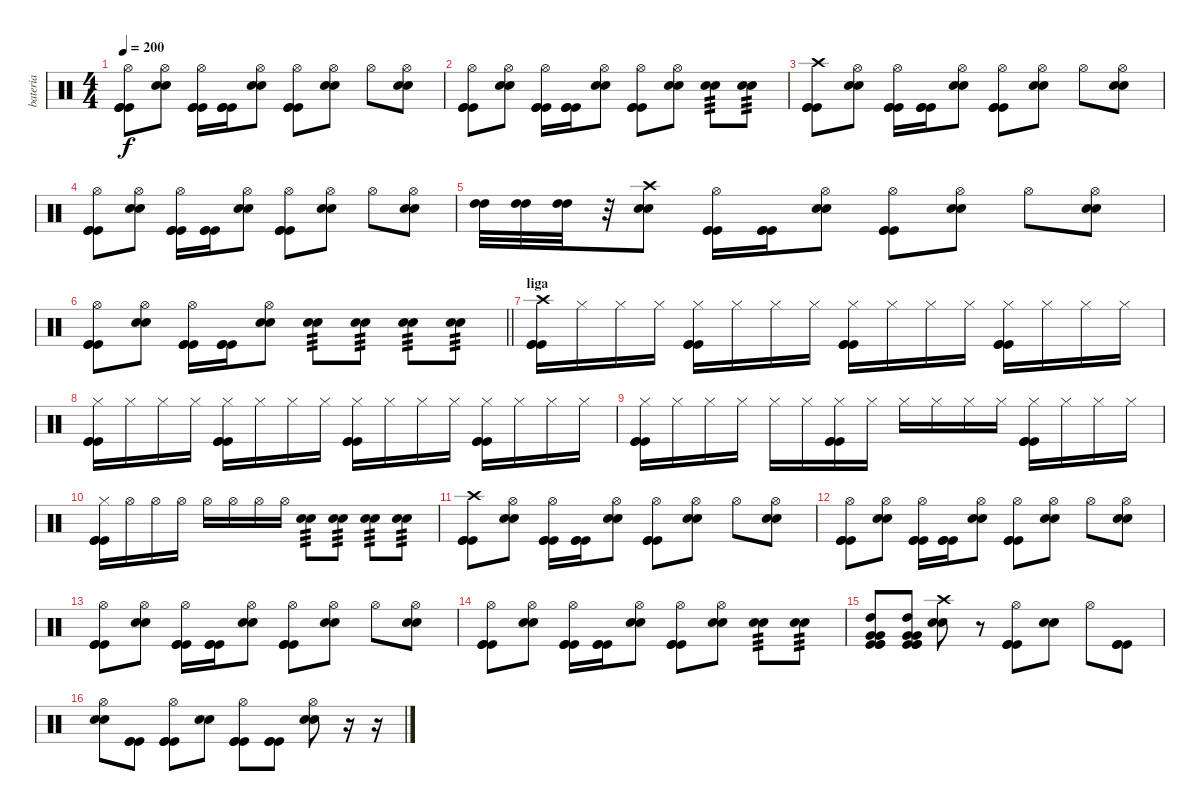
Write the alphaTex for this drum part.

\track ("bateria" "bateria") {instrument percussion}
\staff {score}
\articulation defaults
\ts (4 4)
\tempo 200
\clef neutral
\ks c
("Hi-Hat (open)" "Kick (hit)" "Kick (hit)" "Kick (hit)").8{dy f} ("Electric Snare (hit)" "Hi-Hat (open)" "Electric Snare (hit)").8 ("Hi-Hat (open)" "Kick (hit)" "Kick (hit)" "Kick (hit)").16 ("Kick (hit)" "Kick (hit)" "Kick (hit)").16 ("Electric Snare (hit)" "Hi-Hat (open)" "Electric Snare (hit)").8 ("Hi-Hat (open)" "Kick (hit)" "Kick (hit)" "Kick (hit)").8 ("Electric Snare (hit)" "Hi-Hat (open)" "Electric Snare (hit)").8 "Hi-Hat (open)".8 ("Electric Snare (hit)" "Hi-Hat (open)" "Electric Snare (hit)").8 |
("Hi-Hat (open)" "Kick (hit)" "Kick (hit)" "Kick (hit)").8 ("Electric Snare (hit)" "Hi-Hat (open)" "Electric Snare (hit)").8 ("Hi-Hat (open)" "Kick (hit)" "Kick (hit)" "Kick (hit)").16 ("Kick (hit)" "Kick (hit)" "Kick (hit)").16 ("Electric Snare (hit)" "Hi-Hat (open)" "Electric Snare (hit)").8 ("Hi-Hat (open)" "Kick (hit)" "Kick (hit)" "Kick (hit)").8 ("Electric Snare (hit)" "Hi-Hat (open)" "Electric Snare (hit)").8 ("Electric Snare (hit)" "Electric Snare (hit)").8{tp 3} ("Electric Snare (hit)" "Electric Snare (hit)").8{tp 3} |
("Crash high (hit)" "Kick (hit)" "Kick (hit)" "Kick (hit)").8 ("Electric Snare (hit)" "Hi-Hat (open)" "Electric Snare (hit)").8 ("Hi-Hat (open)" "Kick (hit)" "Kick (hit)" "Kick (hit)").16 ("Kick (hit)" "Kick (hit)" "Kick (hit)").16 ("Electric Snare (hit)" "Hi-Hat (open)" "Electric Snare (hit)").8 ("Hi-Hat (open)" "Kick (hit)" "Kick (hit)" "Kick (hit)").8 ("Electric Snare (hit)" "Hi-Hat (open)" "Electric Snare (hit)").8 "Hi-Hat (open)".8 ("Electric Snare (hit)" "Hi-Hat (open)" "Electric Snare (hit)").8 |
("Hi-Hat (open)" "Kick (hit)" "Kick (hit)" "Kick (hit)").8 ("Electric Snare (hit)" "Hi-Hat (open)" "Electric Snare (hit)").8 ("Hi-Hat (open)" "Kick (hit)" "Kick (hit)" "Kick (hit)").16 ("Kick (hit)" "Kick (hit)" "Kick (hit)").16 ("Electric Snare (hit)" "Hi-Hat (open)" "Electric Snare (hit)").8 ("Hi-Hat (open)" "Kick (hit)" "Kick (hit)" "Kick (hit)").8 ("Electric Snare (hit)" "Hi-Hat (open)" "Electric Snare (hit)").8 "Hi-Hat (open)".8 ("Electric Snare (hit)" "Hi-Hat (open)" "Electric Snare (hit)").8 |
("High Tom (hit)" "High Tom (hit)").32 ("High Tom (hit)" "High Tom (hit)").32 ("High Tom (hit)" "High Tom (hit)").32 r.32 ("Electric Snare (hit)" "Crash high (hit)" "Electric Snare (hit)").8 ("Hi-Hat (open)" "Kick (hit)" "Kick (hit)" "Kick (hit)").16 ("Kick (hit)" "Kick (hit)" "Kick (hit)").16 ("Electric Snare (hit)" "Hi-Hat (open)" "Electric Snare (hit)").8 ("Hi-Hat (open)" "Kick (hit)" "Kick (hit)" "Kick (hit)").8 ("Electric Snare (hit)" "Hi-Hat (open)" "Electric Snare (hit)").8 "Hi-Hat (open)".8 ("Electric Snare (hit)" "Hi-Hat (open)" "Electric Snare (hit)").8 |
\barLineRight lightlight
("Hi-Hat (open)" "Kick (hit)" "Kick (hit)" "Kick (hit)").8 ("Electric Snare (hit)" "Hi-Hat (open)" "Electric Snare (hit)").8 ("Hi-Hat (open)" "Kick (hit)" "Kick (hit)" "Kick (hit)").16 ("Kick (hit)" "Kick (hit)" "Kick (hit)").16 ("Electric Snare (hit)" "Hi-Hat (open)" "Electric Snare (hit)").8 ("Electric Snare (hit)" "Electric Snare (hit)").8{tp 3 volume 11} ("Electric Snare (hit)" "Electric Snare (hit)").8{tp 3} ("Electric Snare (hit)" "Electric Snare (hit)").8{tp 3 volume 11} ("Electric Snare (hit)" "Electric Snare (hit)").8{tp 3} |
\section ("" "liga")
("Crash high (hit)" "Kick (hit)" "Kick (hit)" "Kick (hit)").16 "Hi-Hat (closed)".16 "Hi-Hat (closed)".16 "Hi-Hat (closed)".16 ("Hi-Hat (closed)" "Kick (hit)" "Kick (hit)" "Kick (hit)").16 "Hi-Hat (closed)".16 "Hi-Hat (closed)".16 "Hi-Hat (closed)".16 ("Hi-Hat (closed)" "Kick (hit)" "Kick (hit)" "Kick (hit)").16 "Hi-Hat (closed)".16 "Hi-Hat (closed)".16 "Hi-Hat (closed)".16 ("Hi-Hat (closed)" "Kick (hit)" "Kick (hit)" "Kick (hit)").16 "Hi-Hat (closed)".16 "Hi-Hat (closed)".16 "Hi-Hat (closed)".16 |
("Hi-Hat (closed)" "Kick (hit)" "Kick (hit)" "Kick (hit)").16 "Hi-Hat (closed)".16 "Hi-Hat (closed)".16 "Hi-Hat (closed)".16 ("Hi-Hat (closed)" "Kick (hit)" "Kick (hit)" "Kick (hit)").16 "Hi-Hat (closed)".16 "Hi-Hat (closed)".16 "Hi-Hat (closed)".16 ("Hi-Hat (closed)" "Kick (hit)" "Kick (hit)" "Kick (hit)").16 "Hi-Hat (closed)".16 "Hi-Hat (closed)".16 "Hi-Hat (closed)".16 ("Hi-Hat (closed)" "Kick (hit)" "Kick (hit)" "Kick (hit)").16 "Hi-Hat (closed)".16 "Hi-Hat (closed)".16 "Hi-Hat (closed)".16 |
("Hi-Hat (closed)" "Kick (hit)" "Kick (hit)" "Kick (hit)").16 "Hi-Hat (closed)".16 "Hi-Hat (closed)".16 "Hi-Hat (closed)".16 "Hi-Hat (closed)".16 "Hi-Hat (closed)".16 ("Hi-Hat (closed)" "Kick (hit)" "Kick (hit)" "Kick (hit)").16 "Hi-Hat (closed)".16 "Hi-Hat (closed)".16 "Hi-Hat (closed)".16 "Hi-Hat (closed)".16 "Hi-Hat (closed)".16 ("Hi-Hat (closed)" "Kick (hit)" "Kick (hit)" "Kick (hit)").16 "Hi-Hat (closed)".16 "Hi-Hat (closed)".16 "Hi-Hat (closed)".16 |
("Hi-Hat (closed)" "Kick (hit)" "Kick (hit)" "Kick (hit)").16 "Hi-Hat (open)".16 "Hi-Hat (open)".16 "Hi-Hat (open)".16 "Hi-Hat (open)".16 "Hi-Hat (open)".16 "Hi-Hat (open)".16 "Hi-Hat (open)".16 ("Electric Snare (hit)" "Electric Snare (hit)").8{tp 3 volume 11} ("Electric Snare (hit)" "Electric Snare (hit)").8{tp 3} ("Electric Snare (hit)" "Electric Snare (hit)").8{tp 3 volume 11} ("Electric Snare (hit)" "Electric Snare (hit)").8{tp 3} |
("Crash high (hit)" "Kick (hit)" "Kick (hit)" "Kick (hit)").8 ("Hi-Hat (open)" "Electric Snare (hit)" "Electric Snare (hit)").8 ("Hi-Hat (open)" "Kick (hit)" "Kick (hit)" "Kick (hit)").16 ("Kick (hit)" "Kick (hit)" "Kick (hit)").16 ("Hi-Hat (open)" "Electric Snare (hit)" "Electric Snare (hit)").8 ("Hi-Hat (open)" "Kick (hit)" "Kick (hit)" "Kick (hit)").8 ("Hi-Hat (open)" "Electric Snare (hit)" "Electric Snare (hit)").8 "Hi-Hat (open)".8 ("Hi-Hat (open)" "Electric Snare (hit)" "Electric Snare (hit)").8 |
("Hi-Hat (open)" "Kick (hit)" "Kick (hit)" "Kick (hit)").8 ("Hi-Hat (open)" "Electric Snare (hit)" "Electric Snare (hit)").8 ("Hi-Hat (open)" "Kick (hit)" "Kick (hit)" "Kick (hit)").16 ("Kick (hit)" "Kick (hit)" "Kick (hit)").16 ("Hi-Hat (open)" "Electric Snare (hit)" "Electric Snare (hit)").8 ("Hi-Hat (open)" "Kick (hit)" "Kick (hit)" "Kick (hit)").8 ("Hi-Hat (open)" "Electric Snare (hit)" "Electric Snare (hit)").8 "Hi-Hat (open)".8 ("Hi-Hat (open)" "Electric Snare (hit)" "Electric Snare (hit)").8 |
("Hi-Hat (open)" "Kick (hit)" "Kick (hit)" "Kick (hit)").8 ("Hi-Hat (open)" "Electric Snare (hit)" "Electric Snare (hit)").8 ("Hi-Hat (open)" "Kick (hit)" "Kick (hit)" "Kick (hit)").16 ("Kick (hit)" "Kick (hit)" "Kick (hit)").16 ("Hi-Hat (open)" "Electric Snare (hit)" "Electric Snare (hit)").8 ("Hi-Hat (open)" "Kick (hit)" "Kick (hit)" "Kick (hit)").8 ("Hi-Hat (open)" "Electric Snare (hit)" "Electric Snare (hit)").8 "Hi-Hat (open)".8 ("Hi-Hat (open)" "Electric Snare (hit)" "Electric Snare (hit)").8 |
("Hi-Hat (open)" "Kick (hit)" "Kick (hit)" "Kick (hit)").8 ("Hi-Hat (open)" "Electric Snare (hit)" "Electric Snare (hit)").8 ("Hi-Hat (open)" "Kick (hit)" "Kick (hit)" "Kick (hit)").16 ("Kick (hit)" "Kick (hit)" "Kick (hit)").16 ("Hi-Hat (open)" "Electric Snare (hit)" "Electric Snare (hit)").8 ("Hi-Hat (open)" "Kick (hit)" "Kick (hit)" "Kick (hit)").8 ("Hi-Hat (open)" "Electric Snare (hit)" "Electric Snare (hit)").8 ("Electric Snare (hit)" "Electric Snare (hit)").8{tp 3} ("Electric Snare (hit)" "Electric Snare (hit)").8{tp 3} |
("Very Low Tom (hit)" "Very Low Tom (hit)" "High Tom (hit)" "Kick (hit)" "Kick (hit)" "Kick (hit)").8 ("Very Low Tom (hit)" "Very Low Tom (hit)" "High Tom (hit)" "Kick (hit)" "Kick (hit)" "Kick (hit)").8 ("Electric Snare (hit)" "Crash high (hit)" "Electric Snare (hit)").8 r.8 ("Hi-Hat (open)" "Kick (hit)" "Kick (hit)" "Kick (hit)").8 ("Electric Snare (hit)" "Electric Snare (hit)").8 "Hi-Hat (open)".8 ("Kick (hit)" "Kick (hit)" "Kick (hit)").8 |
("Hi-Hat (open)" "Electric Snare (hit)" "Electric Snare (hit)").8 ("Kick (hit)" "Kick (hit)" "Kick (hit)").8 ("Hi-Hat (open)" "Kick (hit)" "Kick (hit)" "Kick (hit)").8 ("Electric Snare (hit)" "Electric Snare (hit)").8 ("Hi-Hat (open)" "Kick (hit)" "Kick (hit)" "Kick (hit)").8 ("Kick (hit)" "Kick (hit)" "Kick (hit)").8 ("Hi-Hat (open)" "Electric Snare (hit)" "Electric Snare (hit)").8 r.16 r.16
